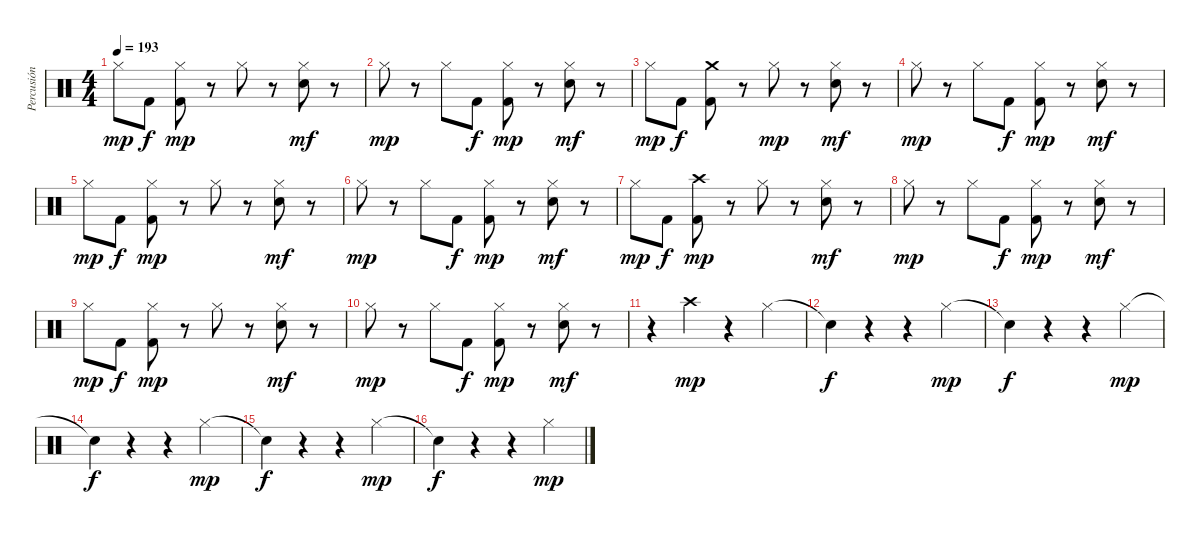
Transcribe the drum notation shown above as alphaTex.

\track ("Percusión" "Percusión") {instrument percussion}
\staff {score}
\articulation defaults
\ts (4 4)
\tempo 193
\clef neutral
\ks c "Hi-Hat (closed)".8{dy mp} "Kick (hit) 2".8{dy f}
("Hi-Hat (closed)" "Kick (hit) 2").8{dy mp} r.8 "Hi-Hat (closed)".8 r.8 ("Hi-Hat (closed)" "Electric Snare (hit)").8{dy mf} r.8 |
"Hi-Hat (closed)".8{dy mp} r.8 "Hi-Hat (closed)".8 "Kick (hit) 2".8{dy f} ("Hi-Hat (closed)" "Kick (hit) 2").8{dy mp} r.8 ("Hi-Hat (closed)" "Electric Snare (hit)").8{dy mf} r.8 |
"Hi-Hat (closed)".8{dy mp} "Kick (hit) 2".8{dy f} ("Crash medium (hit)" "Kick (hit) 2").8 r.8 "Hi-Hat (closed)".8{dy mp} r.8 ("Hi-Hat (closed)" "Electric Snare (hit)").8{dy mf} r.8 |
"Hi-Hat (closed)".8{dy mp} r.8 "Hi-Hat (closed)".8 "Kick (hit) 2".8{dy f} ("Hi-Hat (closed)" "Kick (hit) 2").8{dy mp} r.8 ("Hi-Hat (closed)" "Electric Snare (hit)").8{dy mf} r.8 |
"Hi-Hat (closed)".8{dy mp} "Kick (hit) 2".8{dy f} ("Hi-Hat (closed)" "Kick (hit) 2").8{dy mp} r.8 "Hi-Hat (closed)".8 r.8 ("Hi-Hat (closed)" "Electric Snare (hit)").8{dy mf} r.8 |
"Hi-Hat (closed)".8{dy mp} r.8 "Hi-Hat (closed)".8 "Kick (hit) 2".8{dy f} ("Hi-Hat (closed)" "Kick (hit) 2").8{dy mp} r.8 ("Hi-Hat (closed)" "Electric Snare (hit)").8{dy mf} r.8 |
"Hi-Hat (closed)".8{dy mp} "Kick (hit) 2".8{dy f} ("Crash high (hit)" "Kick (hit) 2").8{dy mp} r.8 "Hi-Hat (closed)".8 r.8 ("Hi-Hat (closed)" "Electric Snare (hit)").8{dy mf} r.8 |
"Hi-Hat (closed)".8{dy mp} r.8 "Hi-Hat (closed)".8 "Kick (hit) 2".8{dy f} ("Hi-Hat (closed)" "Kick (hit) 2").8{dy mp} r.8 ("Hi-Hat (closed)" "Electric Snare (hit)").8{dy mf} r.8 |
"Hi-Hat (closed)".8{dy mp} "Kick (hit) 2".8{dy f} ("Hi-Hat (closed)" "Kick (hit) 2").8{dy mp} r.8 "Hi-Hat (closed)".8 r.8 ("Hi-Hat (closed)" "Electric Snare (hit)").8{dy mf} r.8 |
"Hi-Hat (closed)".8{dy mp} r.8 "Hi-Hat (closed)".8 "Kick (hit) 2".8{dy f} ("Hi-Hat (closed)" "Kick (hit) 2").8{dy mp} r.8 ("Hi-Hat (closed)" "Electric Snare (hit)").8{dy mf} r.8 |
r.4 "Crash high (hit)".4{dy mp} r.4 "Hi-Hat (closed)".4 |
"Snare (hit)"{t}.4{dy f} r.4 r.4 "Hi-Hat (closed)".4{dy mp} |
"Snare (hit)"{t}.4{dy f} r.4 r.4 "Hi-Hat (closed)".4{dy mp} |
"Snare (hit)"{t}.4{dy f} r.4 r.4 "Hi-Hat (closed)".4{dy mp} |
"Snare (hit)"{t}.4{dy f} r.4 r.4 "Hi-Hat (closed)".4{dy mp} |
"Snare (hit)"{t}.4{dy f} r.4 r.4 "Hi-Hat (closed)".4{dy mp}
